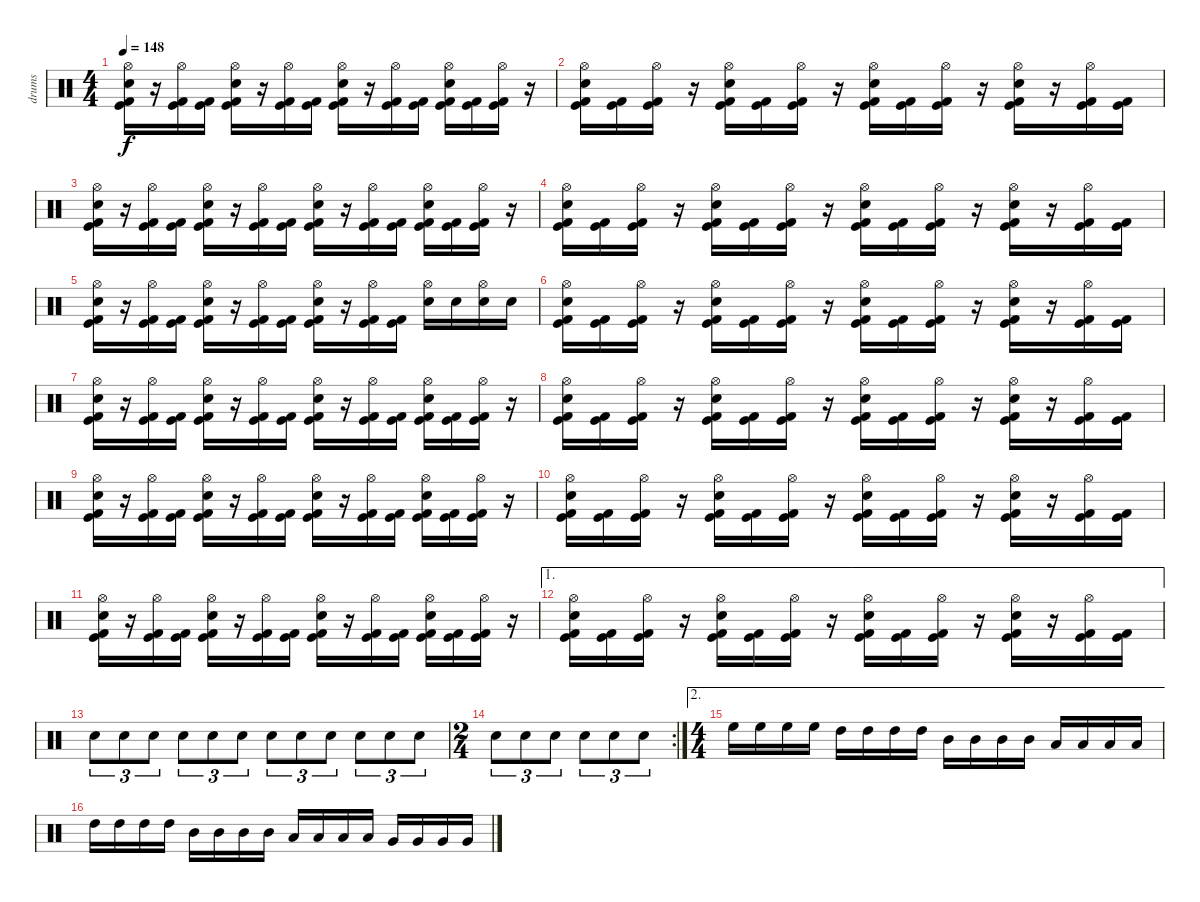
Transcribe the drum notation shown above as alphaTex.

\track ("drums" "drums") {instrument percussion}
\staff {score}
\articulation defaults
\ts (4 4)
\tempo 148
\clef neutral
\ks c
("Kick (hit)" "Kick (hit) 2" "Snare (hit) 2" "Hi-Hat (open)").16{dy f} r.16 ("Kick (hit)" "Kick (hit) 2" "Hi-Hat (open)").16 ("Kick (hit)" "Kick (hit) 2").16 ("Kick (hit)" "Kick (hit) 2" "Snare (hit) 2" "Hi-Hat (open)").16 r.16 ("Kick (hit)" "Kick (hit) 2" "Hi-Hat (open)").16 ("Kick (hit)" "Kick (hit) 2").16 ("Kick (hit)" "Kick (hit) 2" "Snare (hit) 2" "Hi-Hat (open)").16 r.16 ("Kick (hit)" "Kick (hit) 2" "Hi-Hat (open)").16 ("Kick (hit)" "Kick (hit) 2").16 ("Kick (hit)" "Kick (hit) 2" "Snare (hit) 2" "Hi-Hat (open)").16 ("Kick (hit)" "Kick (hit) 2").16 ("Kick (hit)" "Kick (hit) 2" "Hi-Hat (open)").16 r.16 |
("Kick (hit)" "Kick (hit) 2" "Snare (hit) 2" "Hi-Hat (open)").16 ("Kick (hit)" "Kick (hit) 2").16 ("Kick (hit)" "Kick (hit) 2" "Hi-Hat (open)").16 r.16 ("Kick (hit)" "Kick (hit) 2" "Snare (hit) 2" "Hi-Hat (open)").16 ("Kick (hit)" "Kick (hit) 2").16 ("Kick (hit)" "Kick (hit) 2" "Hi-Hat (open)").16 r.16 ("Kick (hit)" "Kick (hit) 2" "Snare (hit) 2" "Hi-Hat (open)").16 ("Kick (hit)" "Kick (hit) 2").16 ("Kick (hit)" "Kick (hit) 2" "Hi-Hat (open)").16 r.16 ("Kick (hit)" "Kick (hit) 2" "Snare (hit) 2" "Hi-Hat (open)").16 r.16 ("Kick (hit)" "Kick (hit) 2" "Hi-Hat (open)").16 ("Kick (hit)" "Kick (hit) 2").16 |
("Kick (hit)" "Kick (hit) 2" "Snare (hit) 2" "Hi-Hat (open)").16 r.16 ("Kick (hit)" "Kick (hit) 2" "Hi-Hat (open)").16 ("Kick (hit)" "Kick (hit) 2").16 ("Kick (hit)" "Kick (hit) 2" "Snare (hit) 2" "Hi-Hat (open)").16 r.16 ("Kick (hit)" "Kick (hit) 2" "Hi-Hat (open)").16 ("Kick (hit)" "Kick (hit) 2").16 ("Kick (hit)" "Kick (hit) 2" "Snare (hit) 2" "Hi-Hat (open)").16 r.16 ("Kick (hit)" "Kick (hit) 2" "Hi-Hat (open)").16 ("Kick (hit)" "Kick (hit) 2").16 ("Kick (hit)" "Kick (hit) 2" "Snare (hit) 2" "Hi-Hat (open)").16 ("Kick (hit)" "Kick (hit) 2").16 ("Kick (hit)" "Kick (hit) 2" "Hi-Hat (open)").16 r.16 |
("Kick (hit)" "Kick (hit) 2" "Snare (hit) 2" "Hi-Hat (open)").16 ("Kick (hit)" "Kick (hit) 2").16 ("Kick (hit)" "Kick (hit) 2" "Hi-Hat (open)").16 r.16 ("Kick (hit)" "Kick (hit) 2" "Snare (hit) 2" "Hi-Hat (open)").16 ("Kick (hit)" "Kick (hit) 2").16 ("Kick (hit)" "Kick (hit) 2" "Hi-Hat (open)").16 r.16 ("Kick (hit)" "Kick (hit) 2" "Snare (hit) 2" "Hi-Hat (open)").16 ("Kick (hit)" "Kick (hit) 2").16 ("Kick (hit)" "Kick (hit) 2" "Hi-Hat (open)").16 r.16 ("Kick (hit)" "Kick (hit) 2" "Snare (hit) 2" "Hi-Hat (open)").16 r.16 ("Kick (hit)" "Kick (hit) 2" "Hi-Hat (open)").16 ("Kick (hit)" "Kick (hit) 2").16 |
("Kick (hit)" "Kick (hit) 2" "Snare (hit) 2" "Hi-Hat (open)").16 r.16 ("Kick (hit)" "Kick (hit) 2" "Hi-Hat (open)").16 ("Kick (hit)" "Kick (hit) 2").16 ("Kick (hit)" "Kick (hit) 2" "Snare (hit) 2" "Hi-Hat (open)").16 r.16 ("Kick (hit)" "Kick (hit) 2" "Hi-Hat (open)").16 ("Kick (hit)" "Kick (hit) 2").16 ("Kick (hit)" "Kick (hit) 2" "Snare (hit) 2" "Hi-Hat (open)").16 r.16 ("Kick (hit)" "Kick (hit) 2" "Hi-Hat (open)").16 ("Kick (hit)" "Kick (hit) 2").16 ("Snare (hit) 2" "Hi-Hat (open)").16 "Snare (hit) 2".16 ("Snare (hit) 2" "Hi-Hat (open)").16 "Snare (hit) 2".16 |
("Kick (hit)" "Kick (hit) 2" "Snare (hit) 2" "Hi-Hat (open)").16 ("Kick (hit)" "Kick (hit) 2").16 ("Kick (hit)" "Kick (hit) 2" "Hi-Hat (open)").16 r.16 ("Kick (hit)" "Kick (hit) 2" "Snare (hit) 2" "Hi-Hat (open)").16 ("Kick (hit)" "Kick (hit) 2").16 ("Kick (hit)" "Kick (hit) 2" "Hi-Hat (open)").16 r.16 ("Kick (hit)" "Kick (hit) 2" "Snare (hit) 2" "Hi-Hat (open)").16 ("Kick (hit)" "Kick (hit) 2").16 ("Kick (hit)" "Kick (hit) 2" "Hi-Hat (open)").16 r.16 ("Kick (hit)" "Kick (hit) 2" "Snare (hit) 2" "Hi-Hat (open)").16 r.16 ("Kick (hit)" "Kick (hit) 2" "Hi-Hat (open)").16 ("Kick (hit)" "Kick (hit) 2").16 |
("Kick (hit)" "Kick (hit) 2" "Snare (hit) 2" "Hi-Hat (open)").16 r.16 ("Kick (hit)" "Kick (hit) 2" "Hi-Hat (open)").16 ("Kick (hit)" "Kick (hit) 2").16 ("Kick (hit)" "Kick (hit) 2" "Snare (hit) 2" "Hi-Hat (open)").16 r.16 ("Kick (hit)" "Kick (hit) 2" "Hi-Hat (open)").16 ("Kick (hit)" "Kick (hit) 2").16 ("Kick (hit)" "Kick (hit) 2" "Snare (hit) 2" "Hi-Hat (open)").16 r.16 ("Kick (hit)" "Kick (hit) 2" "Hi-Hat (open)").16 ("Kick (hit)" "Kick (hit) 2").16 ("Kick (hit)" "Kick (hit) 2" "Snare (hit) 2" "Hi-Hat (open)").16 ("Kick (hit)" "Kick (hit) 2").16 ("Kick (hit)" "Kick (hit) 2" "Hi-Hat (open)").16 r.16 |
("Kick (hit)" "Kick (hit) 2" "Snare (hit) 2" "Hi-Hat (open)").16 ("Kick (hit)" "Kick (hit) 2").16 ("Kick (hit)" "Kick (hit) 2" "Hi-Hat (open)").16 r.16 ("Kick (hit)" "Kick (hit) 2" "Snare (hit) 2" "Hi-Hat (open)").16 ("Kick (hit)" "Kick (hit) 2").16 ("Kick (hit)" "Kick (hit) 2" "Hi-Hat (open)").16 r.16 ("Kick (hit)" "Kick (hit) 2" "Snare (hit) 2" "Hi-Hat (open)").16 ("Kick (hit)" "Kick (hit) 2").16 ("Kick (hit)" "Kick (hit) 2" "Hi-Hat (open)").16 r.16 ("Kick (hit)" "Kick (hit) 2" "Snare (hit) 2" "Hi-Hat (open)").16 r.16 ("Kick (hit)" "Kick (hit) 2" "Hi-Hat (open)").16 ("Kick (hit)" "Kick (hit) 2").16 |
("Kick (hit)" "Kick (hit) 2" "Snare (hit) 2" "Hi-Hat (open)").16 r.16 ("Kick (hit)" "Kick (hit) 2" "Hi-Hat (open)").16 ("Kick (hit)" "Kick (hit) 2").16 ("Kick (hit)" "Kick (hit) 2" "Snare (hit) 2" "Hi-Hat (open)").16 r.16 ("Kick (hit)" "Kick (hit) 2" "Hi-Hat (open)").16 ("Kick (hit)" "Kick (hit) 2").16 ("Kick (hit)" "Kick (hit) 2" "Snare (hit) 2" "Hi-Hat (open)").16 r.16 ("Kick (hit)" "Kick (hit) 2" "Hi-Hat (open)").16 ("Kick (hit)" "Kick (hit) 2").16 ("Kick (hit)" "Kick (hit) 2" "Snare (hit) 2" "Hi-Hat (open)").16 ("Kick (hit)" "Kick (hit) 2").16 ("Kick (hit)" "Kick (hit) 2" "Hi-Hat (open)").16 r.16 |
("Kick (hit)" "Kick (hit) 2" "Snare (hit) 2" "Hi-Hat (open)").16 ("Kick (hit)" "Kick (hit) 2").16 ("Kick (hit)" "Kick (hit) 2" "Hi-Hat (open)").16 r.16 ("Kick (hit)" "Kick (hit) 2" "Snare (hit) 2" "Hi-Hat (open)").16 ("Kick (hit)" "Kick (hit) 2").16 ("Kick (hit)" "Kick (hit) 2" "Hi-Hat (open)").16 r.16 ("Kick (hit)" "Kick (hit) 2" "Snare (hit) 2" "Hi-Hat (open)").16 ("Kick (hit)" "Kick (hit) 2").16 ("Kick (hit)" "Kick (hit) 2" "Hi-Hat (open)").16 r.16 ("Kick (hit)" "Kick (hit) 2" "Snare (hit) 2" "Hi-Hat (open)").16 r.16 ("Kick (hit)" "Kick (hit) 2" "Hi-Hat (open)").16 ("Kick (hit)" "Kick (hit) 2").16 |
("Kick (hit)" "Kick (hit) 2" "Snare (hit) 2" "Hi-Hat (open)").16 r.16 ("Kick (hit)" "Kick (hit) 2" "Hi-Hat (open)").16 ("Kick (hit)" "Kick (hit) 2").16 ("Kick (hit)" "Kick (hit) 2" "Snare (hit) 2" "Hi-Hat (open)").16 r.16 ("Kick (hit)" "Kick (hit) 2" "Hi-Hat (open)").16 ("Kick (hit)" "Kick (hit) 2").16 ("Kick (hit)" "Kick (hit) 2" "Snare (hit) 2" "Hi-Hat (open)").16 r.16 ("Kick (hit)" "Kick (hit) 2" "Hi-Hat (open)").16 ("Kick (hit)" "Kick (hit) 2").16 ("Kick (hit)" "Kick (hit) 2" "Snare (hit) 2" "Hi-Hat (open)").16 ("Kick (hit)" "Kick (hit) 2").16 ("Kick (hit)" "Kick (hit) 2" "Hi-Hat (open)").16 r.16 |
\ae 1
("Kick (hit)" "Kick (hit) 2" "Snare (hit) 2" "Hi-Hat (open)").16 ("Kick (hit)" "Kick (hit) 2").16 ("Kick (hit)" "Kick (hit) 2" "Hi-Hat (open)").16 r.16 ("Kick (hit)" "Kick (hit) 2" "Snare (hit) 2" "Hi-Hat (open)").16 ("Kick (hit)" "Kick (hit) 2").16 ("Kick (hit)" "Kick (hit) 2" "Hi-Hat (open)").16 r.16 ("Kick (hit)" "Kick (hit) 2" "Snare (hit) 2" "Hi-Hat (open)").16 ("Kick (hit)" "Kick (hit) 2").16 ("Kick (hit)" "Kick (hit) 2" "Hi-Hat (open)").16 r.16 ("Kick (hit)" "Kick (hit) 2" "Snare (hit) 2" "Hi-Hat (open)").16 r.16 ("Kick (hit)" "Kick (hit) 2" "Hi-Hat (open)").16 ("Kick (hit)" "Kick (hit) 2").16 |
"Snare (hit) 2".8{tu (3 2)} "Snare (hit) 2".8{tu (3 2)} "Snare (hit) 2".8{tu (3 2)} "Snare (hit) 2".8{tu (3 2)} "Snare (hit) 2".8{tu (3 2)} "Snare (hit) 2".8{tu (3 2)} "Snare (hit) 2".8{tu (3 2)} "Snare (hit) 2".8{tu (3 2)} "Snare (hit) 2".8{tu (3 2)} "Snare (hit) 2".8{tu (3 2)} "Snare (hit) 2".8{tu (3 2)} "Snare (hit) 2".8{tu (3 2)} |
\rc 2
\ts (2 4)
"Snare (hit) 2".8{tu (3 2)} "Snare (hit) 2".8{tu (3 2)} "Snare (hit) 2".8{tu (3 2)} "Snare (hit) 2".8{tu (3 2)} "Snare (hit) 2".8{tu (3 2)} "Snare (hit) 2".8{tu (3 2)} |
\ae 2
\ts (4 4)
"High Floor Tom (hit)".16 "High Floor Tom (hit)".16 "High Floor Tom (hit)".16 "High Floor Tom (hit)".16 "High Tom (hit)".16 "High Tom (hit)".16 "High Tom (hit)".16 "High Tom (hit)".16 "Mid Tom (hit)".16 "Mid Tom (hit)".16 "Mid Tom (hit)".16 "Mid Tom (hit)".16 "Low Tom (hit)".16 "Low Tom (hit)".16 "Low Tom (hit)".16 "Low Tom (hit)".16 |
"High Tom (hit)".16 "High Tom (hit)".16 "High Tom (hit)".16 "High Tom (hit)".16 "Mid Tom (hit)".16 "Mid Tom (hit)".16 "Mid Tom (hit)".16 "Mid Tom (hit)".16 "Low Tom (hit)".16 "Low Tom (hit)".16 "Low Tom (hit)".16 "Low Tom (hit)".16 "Very Low Tom (hit)".16 "Very Low Tom (hit)".16 "Very Low Tom (hit)".16 "Very Low Tom (hit)".16
